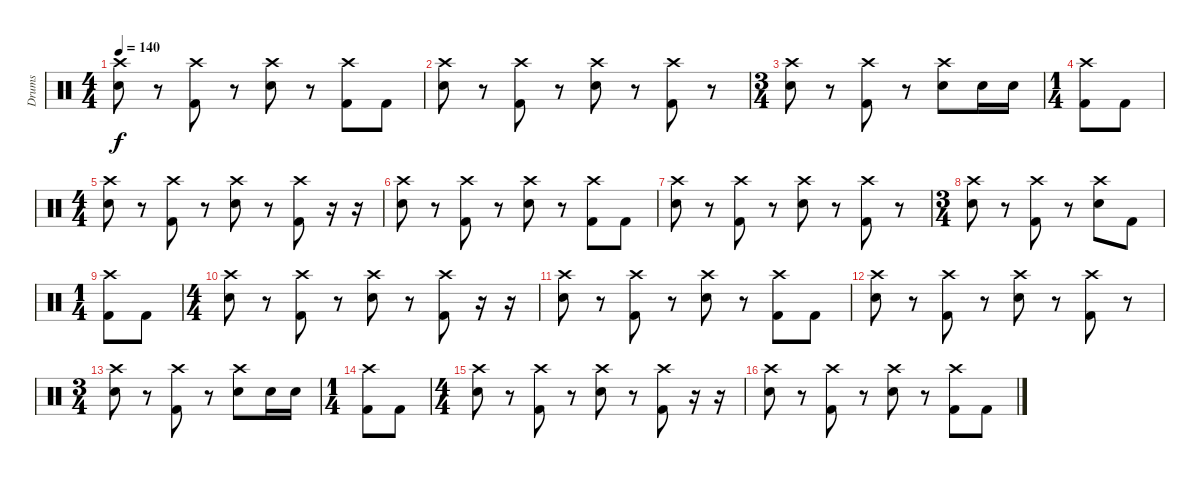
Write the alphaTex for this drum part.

\track ("Drums" "Drums") {instrument percussion}
\staff {score}
\articulation defaults
\ts (4 4)
\tempo 140
\clef neutral
\ks c
("Crash high (hit)" "Electric Snare (hit)").8{dy f} r.8 ("Crash high (hit)" "Kick (hit) 2").8 r.8 ("Crash high (hit)" "Electric Snare (hit)").8 r.8 ("Crash high (hit)" "Kick (hit) 2").8 "Kick (hit) 2".8 |
("Crash high (hit)" "Electric Snare (hit)").8 r.8 ("Crash high (hit)" "Kick (hit) 2").8 r.8 ("Crash high (hit)" "Electric Snare (hit)").8 r.8 ("Crash high (hit)" "Kick (hit) 2").8 r.8 |
\ts (3 4)
("Crash high (hit)" "Electric Snare (hit)").8 r.8 ("Crash high (hit)" "Kick (hit) 2").8 r.8 ("Crash high (hit)" "Electric Snare (hit)").8 "Electric Snare (hit)".16 "Electric Snare (hit)".16 |
\ts (1 4)
("Crash high (hit)" "Kick (hit) 2").8 "Kick (hit) 2".8 |
\ts (4 4)
("Crash high (hit)" "Electric Snare (hit)").8 r.8 ("Crash high (hit)" "Kick (hit) 2").8 r.8 ("Crash high (hit)" "Electric Snare (hit)").8 r.8 ("Crash high (hit)" "Kick (hit) 2").8 r.16 r.16 |
("Crash high (hit)" "Electric Snare (hit)").8 r.8 ("Crash high (hit)" "Kick (hit) 2").8 r.8 ("Crash high (hit)" "Electric Snare (hit)").8 r.8 ("Crash high (hit)" "Kick (hit) 2").8 "Kick (hit) 2".8 |
("Crash high (hit)" "Electric Snare (hit)").8 r.8 ("Crash high (hit)" "Kick (hit) 2").8 r.8 ("Crash high (hit)" "Electric Snare (hit)").8 r.8 ("Crash high (hit)" "Kick (hit) 2").8 r.8 |
\ts (3 4)
("Crash high (hit)" "Electric Snare (hit)").8 r.8 ("Crash high (hit)" "Kick (hit) 2").8 r.8 ("Crash high (hit)" "Electric Snare (hit)").8 "Kick (hit) 2".8 |
\ts (1 4)
("Crash high (hit)" "Kick (hit) 2").8 "Kick (hit) 2".8 |
\ts (4 4)
("Crash high (hit)" "Electric Snare (hit)").8 r.8 ("Crash high (hit)" "Kick (hit) 2").8 r.8 ("Crash high (hit)" "Electric Snare (hit)").8 r.8 ("Crash high (hit)" "Kick (hit) 2").8 r.16 r.16 |
("Crash high (hit)" "Electric Snare (hit)").8 r.8 ("Crash high (hit)" "Kick (hit) 2").8 r.8 ("Crash high (hit)" "Electric Snare (hit)").8 r.8 ("Crash high (hit)" "Kick (hit) 2").8 "Kick (hit) 2".8 |
("Crash high (hit)" "Electric Snare (hit)").8 r.8 ("Crash high (hit)" "Kick (hit) 2").8 r.8 ("Crash high (hit)" "Electric Snare (hit)").8 r.8 ("Crash high (hit)" "Kick (hit) 2").8 r.8 |
\ts (3 4)
("Crash high (hit)" "Electric Snare (hit)").8 r.8 ("Crash high (hit)" "Kick (hit) 2").8 r.8 ("Crash high (hit)" "Electric Snare (hit)").8 "Electric Snare (hit)".16 "Electric Snare (hit)".16 |
\ts (1 4)
("Crash high (hit)" "Kick (hit) 2").8 "Kick (hit) 2".8 |
\ts (4 4)
("Crash high (hit)" "Electric Snare (hit)").8 r.8 ("Crash high (hit)" "Kick (hit) 2").8 r.8 ("Crash high (hit)" "Electric Snare (hit)").8 r.8 ("Crash high (hit)" "Kick (hit) 2").8 r.16 r.16 |
("Crash high (hit)" "Electric Snare (hit)").8 r.8 ("Crash high (hit)" "Kick (hit) 2").8 r.8 ("Crash high (hit)" "Electric Snare (hit)").8 r.8 ("Crash high (hit)" "Kick (hit) 2").8 "Kick (hit) 2".8
